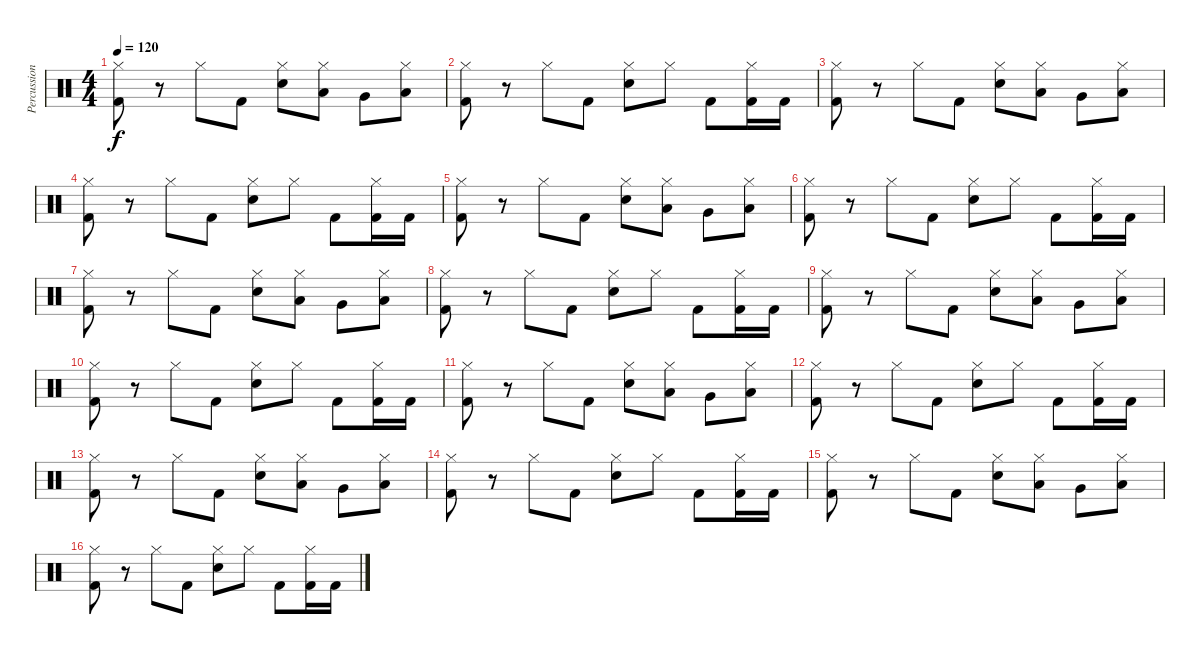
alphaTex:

\track ("Percussions" "Percussion") {instrument percussion}
\staff {score}
\articulation defaults
\ts (4 4)
\tempo 120
\clef neutral
\ks c
("Hi-Hat (closed)" "Kick (hit) 2").8{dy f} r.8 "Hi-Hat (closed)".8 "Kick (hit) 2".8 ("Hi-Hat (closed)" "Snare (hit) 2").8 ("Hi-Hat (closed)" "Low Tom (hit)").8 "Very Low Tom (hit)".8 ("Hi-Hat (closed)" "Low Floor Tom (hit)").8 |
("Hi-Hat (closed)" "Kick (hit) 2").8 r.8 "Hi-Hat (closed)".8 "Kick (hit) 2".8 ("Hi-Hat (closed)" "Snare (hit) 2").8 "Hi-Hat (closed)".8 "Kick (hit) 2".8 ("Hi-Hat (closed)" "Kick (hit) 2").16 "Kick (hit) 2".16 |
("Hi-Hat (closed)" "Kick (hit) 2").8 r.8 "Hi-Hat (closed)".8 "Kick (hit) 2".8 ("Hi-Hat (closed)" "Snare (hit) 2").8 ("Hi-Hat (closed)" "Low Tom (hit)").8 "Very Low Tom (hit)".8 ("Hi-Hat (closed)" "Low Floor Tom (hit)").8 |
("Hi-Hat (closed)" "Kick (hit) 2").8 r.8 "Hi-Hat (closed)".8 "Kick (hit) 2".8 ("Hi-Hat (closed)" "Snare (hit) 2").8 "Hi-Hat (closed)".8 "Kick (hit) 2".8 ("Hi-Hat (closed)" "Kick (hit) 2").16 "Kick (hit) 2".16 |
("Hi-Hat (closed)" "Kick (hit) 2").8 r.8 "Hi-Hat (closed)".8 "Kick (hit) 2".8 ("Hi-Hat (closed)" "Snare (hit) 2").8 ("Hi-Hat (closed)" "Low Tom (hit)").8 "Very Low Tom (hit)".8 ("Hi-Hat (closed)" "Low Floor Tom (hit)").8 |
("Hi-Hat (closed)" "Kick (hit) 2").8 r.8 "Hi-Hat (closed)".8 "Kick (hit) 2".8 ("Hi-Hat (closed)" "Snare (hit) 2").8 "Hi-Hat (closed)".8 "Kick (hit) 2".8 ("Hi-Hat (closed)" "Kick (hit) 2").16 "Kick (hit) 2".16 |
("Hi-Hat (closed)" "Kick (hit) 2").8 r.8 "Hi-Hat (closed)".8 "Kick (hit) 2".8 ("Hi-Hat (closed)" "Snare (hit) 2").8 ("Hi-Hat (closed)" "Low Tom (hit)").8 "Very Low Tom (hit)".8 ("Hi-Hat (closed)" "Low Floor Tom (hit)").8 |
("Hi-Hat (closed)" "Kick (hit) 2").8 r.8 "Hi-Hat (closed)".8 "Kick (hit) 2".8 ("Hi-Hat (closed)" "Snare (hit) 2").8 "Hi-Hat (closed)".8 "Kick (hit) 2".8 ("Hi-Hat (closed)" "Kick (hit) 2").16 "Kick (hit) 2".16 |
("Hi-Hat (closed)" "Kick (hit) 2").8 r.8 "Hi-Hat (closed)".8 "Kick (hit) 2".8 ("Hi-Hat (closed)" "Snare (hit) 2").8 ("Hi-Hat (closed)" "Low Tom (hit)").8 "Very Low Tom (hit)".8 ("Hi-Hat (closed)" "Low Floor Tom (hit)").8 |
("Hi-Hat (closed)" "Kick (hit) 2").8 r.8 "Hi-Hat (closed)".8 "Kick (hit) 2".8 ("Hi-Hat (closed)" "Snare (hit) 2").8 "Hi-Hat (closed)".8 "Kick (hit) 2".8 ("Hi-Hat (closed)" "Kick (hit) 2").16 "Kick (hit) 2".16 |
("Hi-Hat (closed)" "Kick (hit) 2").8 r.8 "Hi-Hat (closed)".8 "Kick (hit) 2".8 ("Hi-Hat (closed)" "Snare (hit) 2").8 ("Hi-Hat (closed)" "Low Tom (hit)").8 "Very Low Tom (hit)".8 ("Hi-Hat (closed)" "Low Floor Tom (hit)").8 |
("Hi-Hat (closed)" "Kick (hit) 2").8 r.8 "Hi-Hat (closed)".8 "Kick (hit) 2".8 ("Hi-Hat (closed)" "Snare (hit) 2").8 "Hi-Hat (closed)".8 "Kick (hit) 2".8 ("Hi-Hat (closed)" "Kick (hit) 2").16 "Kick (hit) 2".16 |
("Hi-Hat (closed)" "Kick (hit) 2").8 r.8 "Hi-Hat (closed)".8 "Kick (hit) 2".8 ("Hi-Hat (closed)" "Snare (hit) 2").8 ("Hi-Hat (closed)" "Low Tom (hit)").8 "Very Low Tom (hit)".8 ("Hi-Hat (closed)" "Low Floor Tom (hit)").8 |
("Hi-Hat (closed)" "Kick (hit) 2").8 r.8 "Hi-Hat (closed)".8 "Kick (hit) 2".8 ("Hi-Hat (closed)" "Snare (hit) 2").8 "Hi-Hat (closed)".8 "Kick (hit) 2".8 ("Hi-Hat (closed)" "Kick (hit) 2").16 "Kick (hit) 2".16 |
("Hi-Hat (closed)" "Kick (hit) 2").8 r.8 "Hi-Hat (closed)".8 "Kick (hit) 2".8 ("Hi-Hat (closed)" "Snare (hit) 2").8 ("Hi-Hat (closed)" "Low Tom (hit)").8 "Very Low Tom (hit)".8 ("Hi-Hat (closed)" "Low Floor Tom (hit)").8 |
("Hi-Hat (closed)" "Kick (hit) 2").8 r.8 "Hi-Hat (closed)".8 "Kick (hit) 2".8 ("Hi-Hat (closed)" "Snare (hit) 2").8 "Hi-Hat (closed)".8 "Kick (hit) 2".8 ("Hi-Hat (closed)" "Kick (hit) 2").16 "Kick (hit) 2".16
